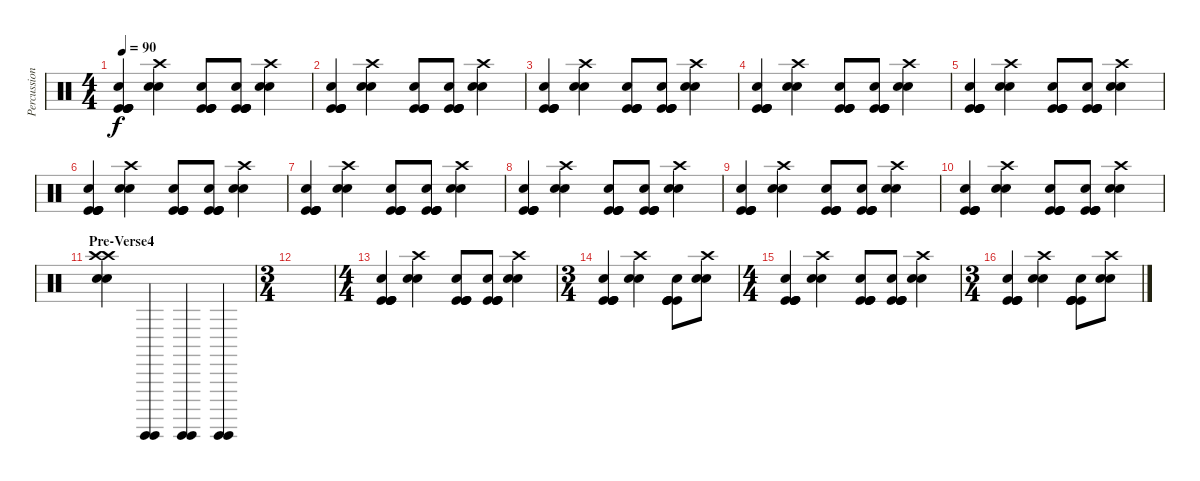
\track ("Percussion" "Percussion") {instrument percussion}
\staff {score}
\articulation defaults
\ts (4 4)
\tempo 90
\clef neutral
\ks c
("Electric Snare (hit)" "Kick (hit)" "Kick (hit)" "Kick (hit)" "Kick (hit)").4{dy f} ("Electric Snare (hit)" "Electric Snare (hit)" "Crash high (hit)").4 ("Electric Snare (hit)" "Kick (hit)" "Kick (hit)" "Kick (hit)" "Kick (hit)").8 ("Electric Snare (hit)" "Kick (hit)" "Kick (hit)" "Kick (hit)" "Kick (hit)").8 ("Electric Snare (hit)" "Electric Snare (hit)" "Crash high (hit)").4 |
("Electric Snare (hit)" "Kick (hit)" "Kick (hit)" "Kick (hit)" "Kick (hit)").4 ("Electric Snare (hit)" "Electric Snare (hit)" "Crash high (hit)").4 ("Electric Snare (hit)" "Kick (hit)" "Kick (hit)" "Kick (hit)" "Kick (hit)").8 ("Electric Snare (hit)" "Kick (hit)" "Kick (hit)" "Kick (hit)" "Kick (hit)").8 ("Electric Snare (hit)" "Electric Snare (hit)" "Crash high (hit)").4 |
("Electric Snare (hit)" "Kick (hit)" "Kick (hit)" "Kick (hit)" "Kick (hit)").4 ("Electric Snare (hit)" "Electric Snare (hit)" "Crash high (hit)").4 ("Electric Snare (hit)" "Kick (hit)" "Kick (hit)" "Kick (hit)" "Kick (hit)").8 ("Electric Snare (hit)" "Kick (hit)" "Kick (hit)" "Kick (hit)" "Kick (hit)").8 ("Electric Snare (hit)" "Electric Snare (hit)" "Crash high (hit)").4 |
("Electric Snare (hit)" "Kick (hit)" "Kick (hit)" "Kick (hit)" "Kick (hit)").4 ("Electric Snare (hit)" "Electric Snare (hit)" "Crash high (hit)").4 ("Electric Snare (hit)" "Kick (hit)" "Kick (hit)" "Kick (hit)" "Kick (hit)").8 ("Electric Snare (hit)" "Kick (hit)" "Kick (hit)" "Kick (hit)" "Kick (hit)").8 ("Electric Snare (hit)" "Electric Snare (hit)" "Crash high (hit)").4 |
("Electric Snare (hit)" "Kick (hit)" "Kick (hit)" "Kick (hit)" "Kick (hit)").4 ("Electric Snare (hit)" "Electric Snare (hit)" "Crash high (hit)").4 ("Electric Snare (hit)" "Kick (hit)" "Kick (hit)" "Kick (hit)" "Kick (hit)").8 ("Electric Snare (hit)" "Kick (hit)" "Kick (hit)" "Kick (hit)" "Kick (hit)").8 ("Electric Snare (hit)" "Electric Snare (hit)" "Crash high (hit)").4 |
("Electric Snare (hit)" "Kick (hit)" "Kick (hit)" "Kick (hit)" "Kick (hit)").4 ("Electric Snare (hit)" "Electric Snare (hit)" "Crash high (hit)").4 ("Electric Snare (hit)" "Kick (hit)" "Kick (hit)" "Kick (hit)" "Kick (hit)").8 ("Electric Snare (hit)" "Kick (hit)" "Kick (hit)" "Kick (hit)" "Kick (hit)").8 ("Electric Snare (hit)" "Electric Snare (hit)" "Crash high (hit)").4 |
("Electric Snare (hit)" "Kick (hit)" "Kick (hit)" "Kick (hit)" "Kick (hit)").4 ("Electric Snare (hit)" "Electric Snare (hit)" "Crash high (hit)").4 ("Electric Snare (hit)" "Kick (hit)" "Kick (hit)" "Kick (hit)" "Kick (hit)").8 ("Electric Snare (hit)" "Kick (hit)" "Kick (hit)" "Kick (hit)" "Kick (hit)").8 ("Electric Snare (hit)" "Electric Snare (hit)" "Crash high (hit)").4 |
("Electric Snare (hit)" "Kick (hit)" "Kick (hit)" "Kick (hit)" "Kick (hit)").4 ("Electric Snare (hit)" "Electric Snare (hit)" "Crash high (hit)").4 ("Electric Snare (hit)" "Kick (hit)" "Kick (hit)" "Kick (hit)" "Kick (hit)").8 ("Electric Snare (hit)" "Kick (hit)" "Kick (hit)" "Kick (hit)" "Kick (hit)").8 ("Electric Snare (hit)" "Electric Snare (hit)" "Crash high (hit)").4 |
("Electric Snare (hit)" "Kick (hit)" "Kick (hit)" "Kick (hit)" "Kick (hit)").4 ("Electric Snare (hit)" "Electric Snare (hit)" "Crash high (hit)").4 ("Electric Snare (hit)" "Kick (hit)" "Kick (hit)" "Kick (hit)" "Kick (hit)").8 ("Electric Snare (hit)" "Kick (hit)" "Kick (hit)" "Kick (hit)" "Kick (hit)").8 ("Electric Snare (hit)" "Electric Snare (hit)" "Crash high (hit)").4 |
("Electric Snare (hit)" "Kick (hit)" "Kick (hit)" "Kick (hit)" "Kick (hit)").4 ("Electric Snare (hit)" "Electric Snare (hit)" "Crash high (hit)").4 ("Electric Snare (hit)" "Kick (hit)" "Kick (hit)" "Kick (hit)" "Kick (hit)").8 ("Electric Snare (hit)" "Kick (hit)" "Kick (hit)" "Kick (hit)" "Kick (hit)").8 ("Electric Snare (hit)" "Electric Snare (hit)" "Crash high (hit)").4 |
\section ("" "Pre-Verse4")
("Crash high (hit)" "Crash high (hit)" "Electric Snare (hit)" "Electric Snare (hit)").4 ("Guiro (hit)" "Guiro (hit)").4 ("Guiro (hit)" "Guiro (hit)").4 ("Guiro (hit)" "Guiro (hit)").4 |
\ts (3 4)
|
\ts (4 4)
("Electric Snare (hit)" "Kick (hit)" "Kick (hit)" "Kick (hit)" "Kick (hit)").4 ("Electric Snare (hit)" "Electric Snare (hit)" "Crash high (hit)").4 ("Electric Snare (hit)" "Kick (hit)" "Kick (hit)" "Kick (hit)" "Kick (hit)").8 ("Electric Snare (hit)" "Kick (hit)" "Kick (hit)" "Kick (hit)" "Kick (hit)").8 ("Electric Snare (hit)" "Electric Snare (hit)" "Crash high (hit)").4 |
\ts (3 4)
("Electric Snare (hit)" "Kick (hit)" "Kick (hit)" "Kick (hit)" "Kick (hit)").4 ("Electric Snare (hit)" "Electric Snare (hit)" "Crash high (hit)").4 ("Electric Snare (hit)" "Kick (hit)" "Kick (hit)" "Kick (hit)" "Kick (hit)").8 ("Electric Snare (hit)" "Electric Snare (hit)" "Crash high (hit)").8 |
\ts (4 4)
("Electric Snare (hit)" "Kick (hit)" "Kick (hit)" "Kick (hit)" "Kick (hit)").4 ("Electric Snare (hit)" "Electric Snare (hit)" "Crash high (hit)").4 ("Electric Snare (hit)" "Kick (hit)" "Kick (hit)" "Kick (hit)" "Kick (hit)").8 ("Electric Snare (hit)" "Kick (hit)" "Kick (hit)" "Kick (hit)" "Kick (hit)").8 ("Electric Snare (hit)" "Electric Snare (hit)" "Crash high (hit)").4 |
\ts (3 4)
("Electric Snare (hit)" "Kick (hit)" "Kick (hit)" "Kick (hit)" "Kick (hit)").4 ("Electric Snare (hit)" "Electric Snare (hit)" "Crash high (hit)").4 ("Electric Snare (hit)" "Kick (hit)" "Kick (hit)" "Kick (hit)" "Kick (hit)").8 ("Electric Snare (hit)" "Electric Snare (hit)" "Crash high (hit)").8
